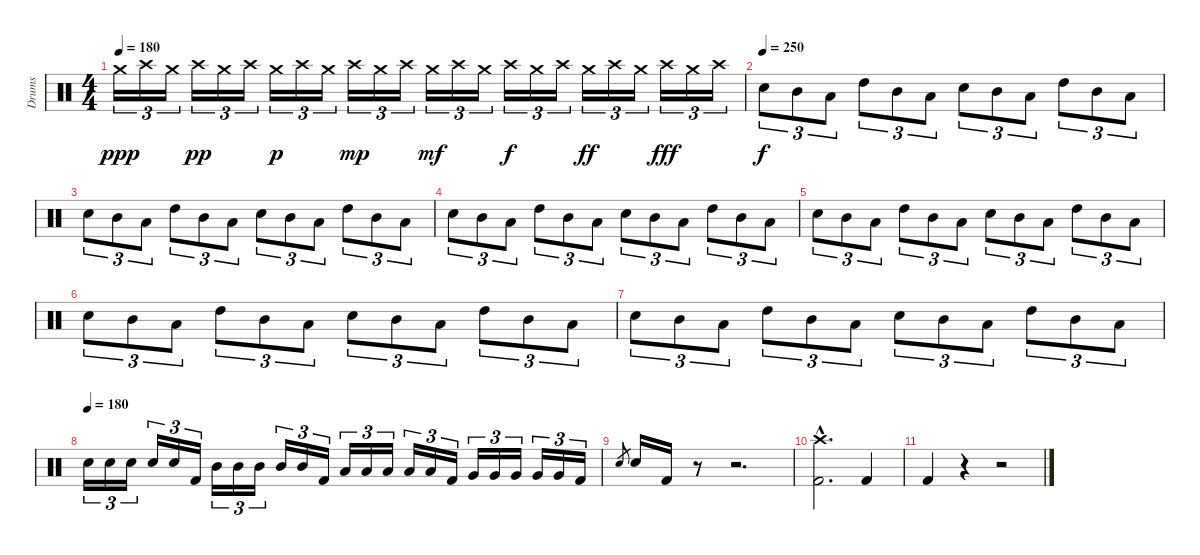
\track ("Drums" "Drums") {instrument percussion}
\staff {score}
\articulation defaults
\ts (4 4)
\tempo 180
\clef neutral
\ks c "Crash medium (hit)".16{tu (3 2) dy ppp} "Crash high (hit)".16{tu (3 2)} "Crash medium (hit)".16{tu (3 2)} "Crash high (hit)".16{tu (3 2) dy pp} "Crash medium (hit)".16{tu (3 2)} "Crash high (hit)".16{tu (3 2)} "Crash medium (hit)".16{tu (3 2) dy p} "Crash high (hit)".16{tu (3 2)} "Crash medium (hit)".16{tu (3 2)} "Crash high (hit)".16{tu (3 2) dy mp} "Crash medium (hit)".16{tu (3 2)} "Crash high (hit)".16{tu (3 2)} "Crash medium (hit)".16{tu (3 2) dy mf} "Crash high (hit)".16{tu (3 2)} "Crash medium (hit)".16{tu (3 2)} "Crash high (hit)".16{tu (3 2) dy f} "Crash medium (hit)".16{tu (3 2)} "Crash high (hit)".16{tu (3 2)} "Crash medium (hit)".16{tu (3 2) dy ff} "Crash high (hit)".16{tu (3 2)} "Crash medium (hit)".16{tu (3 2)} "Crash high (hit)".16{tu (3 2) dy fff} "Crash medium (hit)".16{tu (3 2)} "Crash high (hit)".16{tu (3 2)}
|
\section ("" "")
\tempo (250)
"Snare (hit) 2".8{tu (3 2) dy f} "Mid Tom (hit)".8{tu (3 2)} "Low Tom (hit)".8{tu (3 2)} "High Tom (hit)".8{tu (3 2)} "Mid Tom (hit)".8{tu (3 2)} "Low Tom (hit)".8{tu (3 2)} "Snare (hit) 2".8{tu (3 2)} "Mid Tom (hit)".8{tu (3 2)} "Low Tom (hit)".8{tu (3 2)} "High Tom (hit)".8{tu (3 2)} "Mid Tom (hit)".8{tu (3 2)} "Low Tom (hit)".8{tu (3 2)} |
"Snare (hit) 2".8{tu (3 2)} "Mid Tom (hit)".8{tu (3 2)} "Low Tom (hit)".8{tu (3 2)} "High Tom (hit)".8{tu (3 2)} "Mid Tom (hit)".8{tu (3 2)} "Low Tom (hit)".8{tu (3 2)} "Snare (hit) 2".8{tu (3 2)} "Mid Tom (hit)".8{tu (3 2)} "Low Tom (hit)".8{tu (3 2)} "High Tom (hit)".8{tu (3 2)} "Mid Tom (hit)".8{tu (3 2)} "Low Tom (hit)".8{tu (3 2)} |
"Snare (hit) 2".8{tu (3 2)} "Mid Tom (hit)".8{tu (3 2)} "Low Tom (hit)".8{tu (3 2)} "High Tom (hit)".8{tu (3 2)} "Mid Tom (hit)".8{tu (3 2)} "Low Tom (hit)".8{tu (3 2)} "Snare (hit) 2".8{tu (3 2)} "Mid Tom (hit)".8{tu (3 2)} "Low Tom (hit)".8{tu (3 2)} "High Tom (hit)".8{tu (3 2)} "Mid Tom (hit)".8{tu (3 2)} "Low Tom (hit)".8{tu (3 2)} |
"Snare (hit) 2".8{tu (3 2)} "Mid Tom (hit)".8{tu (3 2)} "Low Tom (hit)".8{tu (3 2)} "High Tom (hit)".8{tu (3 2)} "Mid Tom (hit)".8{tu (3 2)} "Low Tom (hit)".8{tu (3 2)} "Snare (hit) 2".8{tu (3 2)} "Mid Tom (hit)".8{tu (3 2)} "Low Tom (hit)".8{tu (3 2)} "High Tom (hit)".8{tu (3 2)} "Mid Tom (hit)".8{tu (3 2)} "Low Tom (hit)".8{tu (3 2)} |
"Snare (hit) 2".8{tu (3 2)} "Mid Tom (hit)".8{tu (3 2)} "Low Tom (hit)".8{tu (3 2)} "High Tom (hit)".8{tu (3 2)} "Mid Tom (hit)".8{tu (3 2)} "Low Tom (hit)".8{tu (3 2)} "Snare (hit) 2".8{tu (3 2)} "Mid Tom (hit)".8{tu (3 2)} "Low Tom (hit)".8{tu (3 2)} "High Tom (hit)".8{tu (3 2)} "Mid Tom (hit)".8{tu (3 2)} "Low Tom (hit)".8{tu (3 2)} |
"Snare (hit) 2".8{tu (3 2)} "Mid Tom (hit)".8{tu (3 2)} "Low Tom (hit)".8{tu (3 2)} "High Tom (hit)".8{tu (3 2)} "Mid Tom (hit)".8{tu (3 2)} "Low Tom (hit)".8{tu (3 2)} "Snare (hit) 2".8{tu (3 2)} "Mid Tom (hit)".8{tu (3 2)} "Low Tom (hit)".8{tu (3 2)} "High Tom (hit)".8{tu (3 2)} "Mid Tom (hit)".8{tu (3 2)} "Low Tom (hit)".8{tu (3 2)} |
\tempo (180)
"Snare (hit) 2".16{tu (3 2)} "Snare (hit) 2".16{tu (3 2)} "Snare (hit) 2".16{tu (3 2)} "Snare (hit) 2".16{tu (3 2)} "Snare (hit) 2".16{tu (3 2)} "Kick (hit) 2".16{tu (3 2)} "Mid Tom (hit)".16{tu (3 2)} "Mid Tom (hit)".16{tu (3 2)} "Mid Tom (hit)".16{tu (3 2)} "Mid Tom (hit)".16{tu (3 2)} "Mid Tom (hit)".16{tu (3 2)} "Kick (hit) 2".16{tu (3 2)} "Low Tom (hit)".16{tu (3 2)} "Low Tom (hit)".16{tu (3 2)} "Low Tom (hit)".16{tu (3 2)} "Low Tom (hit)".16{tu (3 2)} "Low Tom (hit)".16{tu (3 2)} "Kick (hit) 2".16{tu (3 2)} "Very Low Tom (hit)".16{tu (3 2)} "Very Low Tom (hit)".16{tu (3 2)} "Very Low Tom (hit)".16{tu (3 2)} "Very Low Tom (hit)".16{tu (3 2)} "Very Low Tom (hit)".16{tu (3 2)} "Kick (hit) 2".16{tu (3 2)} |
"Snare (hit) 2".8{gr} "Snare (hit) 2".16 "Kick (hit) 2".16 r.8 r.2{d} |
("Crash high (hit)"{hac} "Kick (hit) 2"{hac}).2{d} "Kick (hit) 2".4 |
"Kick (hit) 2".4 r.4 r.2
